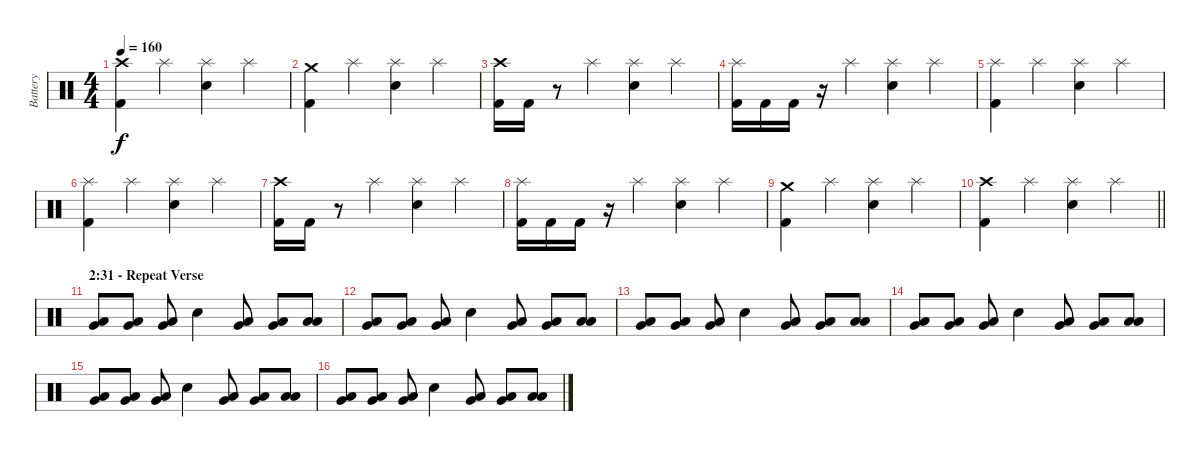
\track ("Battery" "Battery") {instrument percussion}
\staff {score}
\articulation defaults
\ts (4 4)
\tempo 160
\clef neutral
\ks c
("Crash high (hit)" "Kick (hit) 2").4{dy f} "Splash (hit)".4 ("Splash (hit)" "Electric Snare (hit)").4 "Splash (hit)".4 |
("Crash medium (hit)" "Kick (hit) 2").4 "Splash (hit)".4 ("Splash (hit)" "Electric Snare (hit)").4 "Splash (hit)".4 |
("Crash high (hit)" "Kick (hit) 2").16 "Kick (hit) 2".16 r.8 "Splash (hit)".4 ("Splash (hit)" "Electric Snare (hit)").4 "Splash (hit)".4 |
("Splash (hit)" "Kick (hit) 2").16 "Kick (hit) 2".16 "Kick (hit) 2".16 r.16 "Splash (hit)".4 ("Splash (hit)" "Electric Snare (hit)").4 "Splash (hit)".4 |
("Splash (hit)" "Kick (hit) 2").4 "Splash (hit)".4 ("Splash (hit)" "Electric Snare (hit)").4 "Splash (hit)".4 |
("Splash (hit)" "Kick (hit) 2").4 "Splash (hit)".4 ("Splash (hit)" "Electric Snare (hit)").4 "Splash (hit)".4 |
("Crash high (hit)" "Kick (hit) 2").16 "Kick (hit) 2".16 r.8 "Splash (hit)".4 ("Splash (hit)" "Electric Snare (hit)").4 "Splash (hit)".4 |
("Splash (hit)" "Kick (hit) 2").16 "Kick (hit) 2".16 "Kick (hit) 2".16 r.16 "Splash (hit)".4 ("Splash (hit)" "Electric Snare (hit)").4 "Splash (hit)".4 |
("Crash medium (hit)" "Kick (hit) 2").4 "Splash (hit)".4 ("Splash (hit)" "Electric Snare (hit)").4 "Splash (hit)".4 |
\barLineRight lightlight
("Crash high (hit)" "Kick (hit) 2").4 "Splash (hit)".4 ("Splash (hit)" "Electric Snare (hit)").4 "Splash (hit)".4 |
\section ("" "2:31 - Repeat Verse")
("Low Floor Tom (hit)" "Very Low Tom (hit)").8 ("Low Floor Tom (hit)" "Very Low Tom (hit)").8 ("Low Floor Tom (hit)" "Very Low Tom (hit)").8 "Electric Snare (hit)".4 ("Very Low Tom (hit)" "Low Tom (hit)").8 ("Low Floor Tom (hit)" "Very Low Tom (hit)").8 ("Low Floor Tom (hit)" "Low Floor Tom (hit)").8 |
("Low Floor Tom (hit)" "Very Low Tom (hit)").8 ("Low Floor Tom (hit)" "Very Low Tom (hit)").8 ("Low Floor Tom (hit)" "Very Low Tom (hit)").8 "Electric Snare (hit)".4 ("Very Low Tom (hit)" "Low Tom (hit)").8 ("Low Floor Tom (hit)" "Very Low Tom (hit)").8 ("Low Floor Tom (hit)" "Low Floor Tom (hit)").8 |
("Low Floor Tom (hit)" "Very Low Tom (hit)").8 ("Low Floor Tom (hit)" "Very Low Tom (hit)").8 ("Low Floor Tom (hit)" "Very Low Tom (hit)").8 "Electric Snare (hit)".4 ("Very Low Tom (hit)" "Low Tom (hit)").8 ("Low Floor Tom (hit)" "Very Low Tom (hit)").8 ("Low Floor Tom (hit)" "Low Floor Tom (hit)").8 |
("Low Floor Tom (hit)" "Very Low Tom (hit)").8 ("Low Floor Tom (hit)" "Very Low Tom (hit)").8 ("Low Floor Tom (hit)" "Very Low Tom (hit)").8 "Electric Snare (hit)".4 ("Very Low Tom (hit)" "Low Tom (hit)").8 ("Low Floor Tom (hit)" "Very Low Tom (hit)").8 ("Low Floor Tom (hit)" "Low Floor Tom (hit)").8 |
("Low Floor Tom (hit)" "Very Low Tom (hit)").8 ("Low Floor Tom (hit)" "Very Low Tom (hit)").8 ("Low Floor Tom (hit)" "Very Low Tom (hit)").8 "Electric Snare (hit)".4 ("Very Low Tom (hit)" "Low Tom (hit)").8 ("Low Floor Tom (hit)" "Very Low Tom (hit)").8 ("Low Floor Tom (hit)" "Low Floor Tom (hit)").8 |
("Low Floor Tom (hit)" "Very Low Tom (hit)").8 ("Low Floor Tom (hit)" "Very Low Tom (hit)").8 ("Low Floor Tom (hit)" "Very Low Tom (hit)").8 "Electric Snare (hit)".4 ("Very Low Tom (hit)" "Low Tom (hit)").8 ("Low Floor Tom (hit)" "Very Low Tom (hit)").8 ("Low Floor Tom (hit)" "Low Floor Tom (hit)").8
